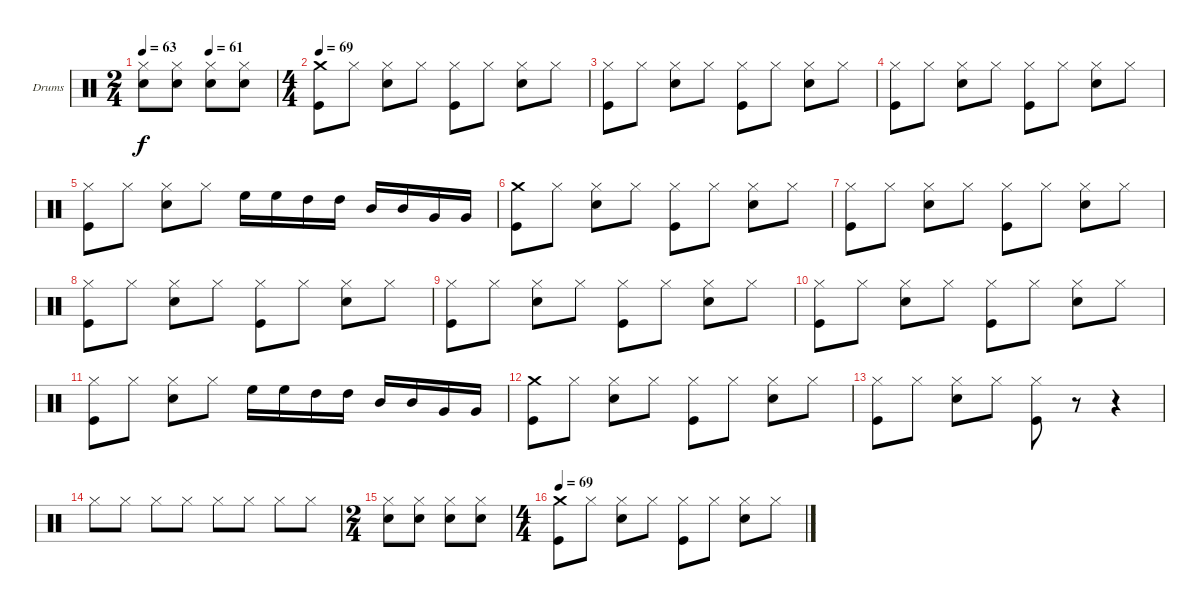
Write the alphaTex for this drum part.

\bracketExtendMode groupsimilarinstruments
\firstSystemTrackNameOrientation horizontal
\otherSystemsTrackNameOrientation horizontal
\track ("Drumkit" "Drums") {instrument percussion}
\staff {score}
\articulation defaults
\ts (2 4)
\tempo 63
\tempo (61 0.5)
\clef neutral
\ks c
("Hi-Hat (closed)" "Snare (hit) 2").8{dy f} ("Hi-Hat (closed)" "Snare (hit) 2").8 ("Hi-Hat (closed)" "Snare (hit) 2").8 ("Hi-Hat (closed)" "Snare (hit) 2").8 |
\ts (4 4)
\tempo 69
("Crash medium (hit)" "Kick (hit)").8 "Hi-Hat (closed)".8 ("Hi-Hat (closed)" "Snare (hit) 2").8 "Hi-Hat (closed)".8 ("Hi-Hat (closed)" "Kick (hit)").8 "Hi-Hat (closed)".8 ("Hi-Hat (closed)" "Snare (hit) 2").8 "Hi-Hat (closed)".8 |
("Hi-Hat (closed)" "Kick (hit)").8 "Hi-Hat (closed)".8 ("Hi-Hat (closed)" "Snare (hit) 2").8 "Hi-Hat (closed)".8 ("Hi-Hat (closed)" "Kick (hit)").8 "Hi-Hat (closed)".8 ("Hi-Hat (closed)" "Snare (hit) 2").8 "Hi-Hat (closed)".8 |
("Hi-Hat (closed)" "Kick (hit)").8 "Hi-Hat (closed)".8 ("Hi-Hat (closed)" "Snare (hit) 2").8 "Hi-Hat (closed)".8 ("Hi-Hat (closed)" "Kick (hit)").8 "Hi-Hat (closed)".8 ("Hi-Hat (closed)" "Snare (hit) 2").8 "Hi-Hat (closed)".8 |
("Hi-Hat (closed)" "Kick (hit)").8 "Hi-Hat (closed)".8 ("Hi-Hat (closed)" "Snare (hit) 2").8 "Hi-Hat (closed)".8 "High Floor Tom (hit)".16 "High Floor Tom (hit)".16 "High Tom (hit)".16 "High Tom (hit)".16 "Mid Tom (hit)".16 "Mid Tom (hit)".16 "Very Low Tom (hit)".16 "Very Low Tom (hit)".16 |
("Crash medium (hit)" "Kick (hit)").8 "Hi-Hat (closed)".8 ("Hi-Hat (closed)" "Snare (hit) 2").8 "Hi-Hat (closed)".8 ("Hi-Hat (closed)" "Kick (hit)").8 "Hi-Hat (closed)".8 ("Hi-Hat (closed)" "Snare (hit) 2").8 "Hi-Hat (closed)".8 |
("Hi-Hat (closed)" "Kick (hit)").8 "Hi-Hat (closed)".8 ("Hi-Hat (closed)" "Snare (hit) 2").8 "Hi-Hat (closed)".8 ("Hi-Hat (closed)" "Kick (hit)").8 "Hi-Hat (closed)".8 ("Hi-Hat (closed)" "Snare (hit) 2").8 "Hi-Hat (closed)".8 |
("Hi-Hat (closed)" "Kick (hit)").8 "Hi-Hat (closed)".8 ("Hi-Hat (closed)" "Snare (hit) 2").8 "Hi-Hat (closed)".8 ("Hi-Hat (closed)" "Kick (hit)").8 "Hi-Hat (closed)".8 ("Hi-Hat (closed)" "Snare (hit) 2").8 "Hi-Hat (closed)".8 |
("Hi-Hat (closed)" "Kick (hit)").8 "Hi-Hat (closed)".8 ("Hi-Hat (closed)" "Snare (hit) 2").8 "Hi-Hat (closed)".8 ("Hi-Hat (closed)" "Kick (hit)").8 "Hi-Hat (closed)".8 ("Hi-Hat (closed)" "Snare (hit) 2").8 "Hi-Hat (closed)".8 |
("Hi-Hat (closed)" "Kick (hit)").8 "Hi-Hat (closed)".8 ("Hi-Hat (closed)" "Snare (hit) 2").8 "Hi-Hat (closed)".8 ("Hi-Hat (closed)" "Kick (hit)").8 "Hi-Hat (closed)".8 ("Hi-Hat (closed)" "Snare (hit) 2").8 "Hi-Hat (closed)".8 |
("Hi-Hat (closed)" "Kick (hit)").8 "Hi-Hat (closed)".8 ("Hi-Hat (closed)" "Snare (hit) 2").8 "Hi-Hat (closed)".8 "High Floor Tom (hit)".16 "High Floor Tom (hit)".16 "High Tom (hit)".16 "High Tom (hit)".16 "Mid Tom (hit)".16 "Mid Tom (hit)".16 "Very Low Tom (hit)".16 "Very Low Tom (hit)".16 |
("Crash medium (hit)" "Kick (hit)").8 "Hi-Hat (closed)".8 ("Hi-Hat (closed)" "Snare (hit) 2").8 "Hi-Hat (closed)".8 ("Hi-Hat (closed)" "Kick (hit)").8 "Hi-Hat (closed)".8 ("Hi-Hat (closed)" "Snare (hit) 2").8 "Hi-Hat (closed)".8 |
("Hi-Hat (closed)" "Kick (hit)").8 "Hi-Hat (closed)".8 ("Hi-Hat (closed)" "Snare (hit) 2").8 "Hi-Hat (closed)".8 ("Hi-Hat (closed)" "Kick (hit)").8 r.8 r.4 |
"Hi-Hat (closed)".8 "Hi-Hat (closed)".8 "Hi-Hat (closed)".8 "Hi-Hat (closed)".8 "Hi-Hat (closed)".8 "Hi-Hat (closed)".8 "Hi-Hat (closed)".8 "Hi-Hat (closed)".8 |
\ts (2 4)
("Hi-Hat (closed)" "Snare (hit) 2").8 ("Hi-Hat (closed)" "Snare (hit) 2").8 ("Hi-Hat (closed)" "Snare (hit) 2").8 ("Hi-Hat (closed)" "Snare (hit) 2").8 |
\ts (4 4)
\tempo 69
("Crash medium (hit)" "Kick (hit)").8 "Hi-Hat (closed)".8 ("Hi-Hat (closed)" "Snare (hit) 2").8 "Hi-Hat (closed)".8 ("Hi-Hat (closed)" "Kick (hit)").8 "Hi-Hat (closed)".8 ("Hi-Hat (closed)" "Snare (hit) 2").8 "Hi-Hat (closed)".8
